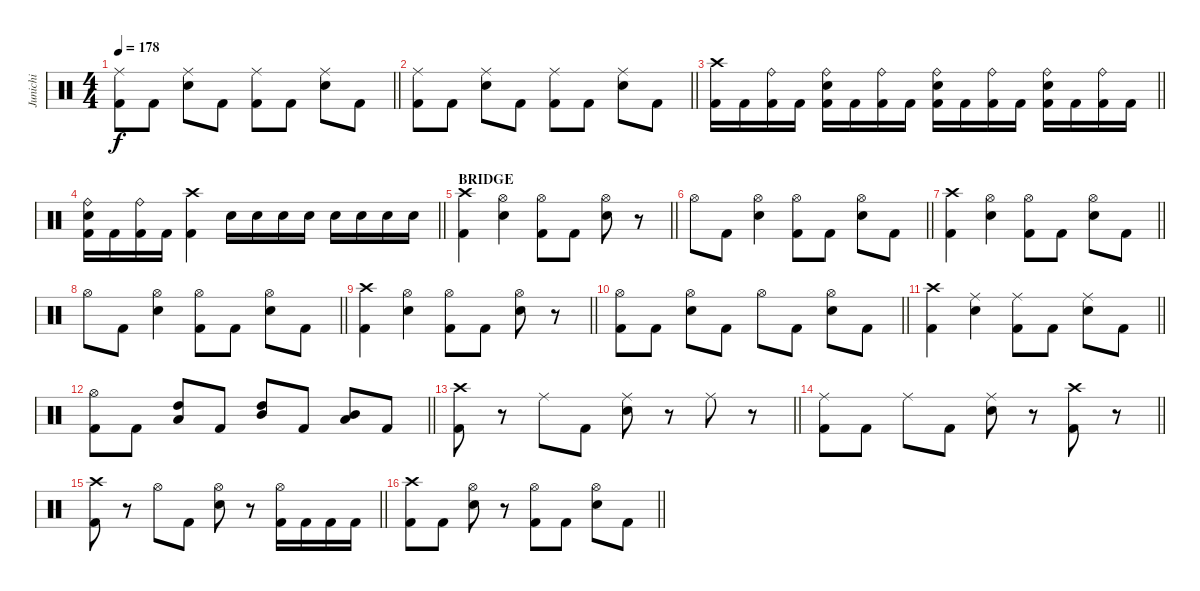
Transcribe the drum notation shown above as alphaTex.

\track ("Junichi" "Junichi") {instrument percussion}
\staff {score}
\articulation defaults
\ts (4 4)
\tempo 178
\clef neutral
\barLineRight lightlight
\ks c
("Ride (middle)" "Kick (hit) 2").8{dy f} "Kick (hit) 2".8 ("Ride (middle)" "Snare (hit) 2").8 "Kick (hit) 2".8 ("Ride (middle)" "Kick (hit) 2").8 "Kick (hit) 2".8 ("Ride (middle)" "Snare (hit) 2").8 "Kick (hit) 2".8 |
\barLineRight lightlight
("Ride (middle)" "Kick (hit) 2").8 "Kick (hit) 2".8 ("Ride (middle)" "Snare (hit) 2").8 "Kick (hit) 2".8 ("Ride (middle)" "Kick (hit) 2").8 "Kick (hit) 2".8 ("Ride (middle)" "Snare (hit) 2").8 "Kick (hit) 2".8 |
\barLineRight lightlight
("Crash high (hit)" "Kick (hit) 2").16 "Kick (hit) 2".16 ("Ride (bell)" "Kick (hit) 2").16 "Kick (hit) 2".16 ("Ride (bell)" "Snare (hit) 2" "Kick (hit) 2").16 "Kick (hit) 2".16 ("Ride (bell)" "Kick (hit) 2").16 "Kick (hit) 2".16 ("Ride (bell)" "Snare (hit) 2" "Kick (hit) 2").16 "Kick (hit) 2".16 ("Ride (bell)" "Kick (hit) 2").16 "Kick (hit) 2".16 ("Ride (bell)" "Snare (hit) 2" "Kick (hit) 2").16 "Kick (hit) 2".16 ("Ride (bell)" "Kick (hit) 2").16 "Kick (hit) 2".16 |
\barLineRight lightlight
("Ride (bell)" "Snare (hit) 2" "Kick (hit) 2").16 "Kick (hit) 2".16 ("Ride (bell)" "Kick (hit) 2").16 "Kick (hit) 2".16 ("Crash high (hit)" "Kick (hit) 2").4 "Snare (hit) 2".16 "Snare (hit) 2".16 "Snare (hit) 2".16 "Snare (hit) 2".16 "Snare (hit) 2".16 "Snare (hit) 2".16 "Snare (hit) 2".16 "Snare (hit) 2".16 |
\section ("" "BRIDGE")
\barLineRight lightlight
("Crash high (hit)" "Kick (hit) 2").4 ("Hi-Hat (open)" "Snare (hit) 2").4 ("Hi-Hat (open)" "Kick (hit) 2").8 "Kick (hit) 2".8 ("Hi-Hat (open)" "Snare (hit) 2").8 r.8 |
\barLineRight lightlight "Hi-Hat (open)".8 "Kick (hit) 2".8
("Hi-Hat (open)" "Snare (hit) 2").4 ("Hi-Hat (open)" "Kick (hit) 2").8 "Kick (hit) 2".8 ("Hi-Hat (open)" "Snare (hit) 2").8 "Kick (hit) 2".8 |
\barLineRight lightlight
("Crash high (hit)" "Kick (hit) 2").4 ("Hi-Hat (open)" "Snare (hit) 2").4 ("Hi-Hat (open)" "Kick (hit) 2").8 "Kick (hit) 2".8 ("Hi-Hat (open)" "Snare (hit) 2").8 "Kick (hit) 2".8 |
\barLineRight lightlight "Hi-Hat (open)".8 "Kick (hit) 2".8
("Hi-Hat (open)" "Snare (hit) 2").4 ("Hi-Hat (open)" "Kick (hit) 2").8 "Kick (hit) 2".8 ("Hi-Hat (open)" "Snare (hit) 2").8 "Kick (hit) 2".8 |
\barLineRight lightlight
("Crash high (hit)" "Kick (hit) 2").4 ("Hi-Hat (open)" "Snare (hit) 2").4 ("Hi-Hat (open)" "Kick (hit) 2").8 "Kick (hit) 2".8 ("Hi-Hat (open)" "Snare (hit) 2").8 r.8 |
\barLineRight lightlight
("Hi-Hat (open)" "Kick (hit) 2").8 "Kick (hit) 2".8 ("Hi-Hat (open)" "Snare (hit) 2").8 "Kick (hit) 2".8 "Hi-Hat (open)".8 "Kick (hit) 2".8 ("Hi-Hat (open)" "Snare (hit) 2").8 "Kick (hit) 2".8 |
\barLineRight lightlight
("Crash high (hit)" "Kick (hit) 2").4 ("Ride (middle)" "Snare (hit) 2").4 ("Ride (middle)" "Kick (hit) 2").8 "Kick (hit) 2".8 ("Ride (middle)" "Snare (hit) 2").8 "Kick (hit) 2".8 |
\barLineRight lightlight
("Hi-Hat (open)" "Kick (hit) 2").8 "Kick (hit) 2".8 ("High Tom (hit)" "Low Tom (hit)").8 "Kick (hit) 2".8 ("Mid Tom (hit)" "High Tom (hit)").8 "Kick (hit) 2".8 ("Low Tom (hit)" "Mid Tom (hit)").8 "Kick (hit) 2".8 |
\barLineRight lightlight
("Crash high (hit)" "Kick (hit) 2").8 r.8 "Ride (middle)".8 "Kick (hit) 2".8 ("Ride (middle)" "Snare (hit) 2").8 r.8 "Ride (middle)".8 r.8 |
\barLineRight lightlight
("Ride (middle)" "Kick (hit) 2").8 "Kick (hit) 2".8 "Ride (middle)".8 "Kick (hit) 2".8 ("Ride (middle)" "Snare (hit) 2").8 r.8 ("Crash high (hit)" "Kick (hit) 2").8 r.8 |
\barLineRight lightlight
("Crash high (hit)" "Kick (hit) 2").8 r.8 "Hi-Hat (open)".8 "Kick (hit) 2".8 ("Hi-Hat (open)" "Snare (hit) 2").8 r.8 ("Hi-Hat (open)" "Kick (hit) 2").16 "Kick (hit) 2".16 "Kick (hit) 2".16 "Kick (hit) 2".16 |
\barLineRight lightlight
("Crash high (hit)" "Kick (hit) 2").8 "Kick (hit) 2".8 ("Hi-Hat (open)" "Snare (hit) 2").8 r.8 ("Hi-Hat (open)" "Kick (hit) 2").8 "Kick (hit) 2".8 ("Hi-Hat (open)" "Snare (hit) 2").8 "Kick (hit) 2".8
